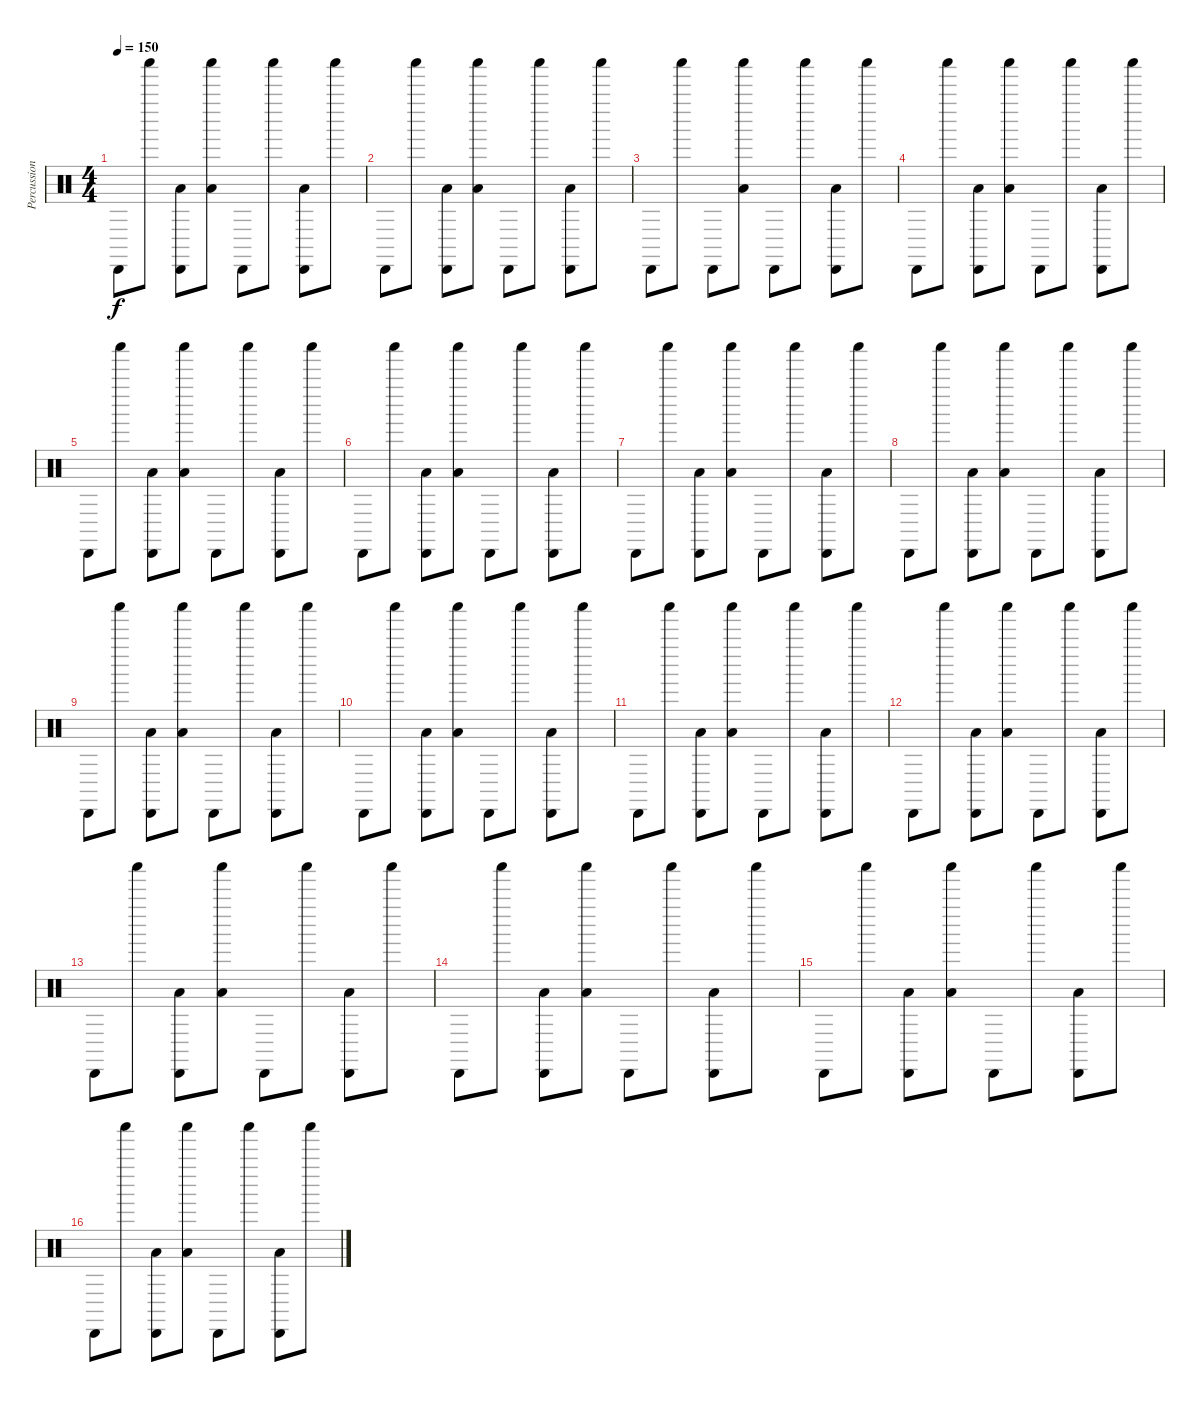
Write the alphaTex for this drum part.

\track ("Percussion" "Percussion") {instrument percussion}
\staff
\articulation defaults
\ts (4 4)
\tempo 150
\clef neutral
\ks c "Cabasa (hit)".8{dy f} "Shaker (hit)".8
("Cabasa (hit)" "Low Floor Tom (hit)").8 ("Shaker (hit)" "Low Floor Tom (hit)").8 "Cabasa (hit)".8 "Shaker (hit)".8 ("Cabasa (hit)" "Low Floor Tom (hit)").8 "Shaker (hit)".8 |
"Cabasa (hit)".8 "Shaker (hit)".8 ("Cabasa (hit)" "Low Floor Tom (hit)").8 ("Shaker (hit)" "Low Floor Tom (hit)").8 "Cabasa (hit)".8 "Shaker (hit)".8 ("Cabasa (hit)" "Low Floor Tom (hit)").8 "Shaker (hit)".8 |
"Cabasa (hit)".8 "Shaker (hit)".8 "Cabasa (hit)".8 ("Shaker (hit)" "Low Floor Tom (hit)").8 "Cabasa (hit)".8 "Shaker (hit)".8 ("Cabasa (hit)" "Low Floor Tom (hit)").8 "Shaker (hit)".8 |
"Cabasa (hit)".8 "Shaker (hit)".8 ("Cabasa (hit)" "Low Floor Tom (hit)").8 ("Shaker (hit)" "Low Floor Tom (hit)").8 "Cabasa (hit)".8 "Shaker (hit)".8 ("Cabasa (hit)" "Low Floor Tom (hit)").8 "Shaker (hit)".8 |
"Cabasa (hit)".8 "Shaker (hit)".8 ("Cabasa (hit)" "Low Floor Tom (hit)").8 ("Shaker (hit)" "Low Floor Tom (hit)").8 "Cabasa (hit)".8 "Shaker (hit)".8 ("Cabasa (hit)" "Low Floor Tom (hit)").8 "Shaker (hit)".8 |
"Cabasa (hit)".8 "Shaker (hit)".8 ("Cabasa (hit)" "Low Floor Tom (hit)").8 ("Shaker (hit)" "Low Floor Tom (hit)").8 "Cabasa (hit)".8 "Shaker (hit)".8 ("Cabasa (hit)" "Low Floor Tom (hit)").8 "Shaker (hit)".8 |
"Cabasa (hit)".8 "Shaker (hit)".8 ("Cabasa (hit)" "Low Floor Tom (hit)").8 ("Shaker (hit)" "Low Floor Tom (hit)").8 "Cabasa (hit)".8 "Shaker (hit)".8 ("Cabasa (hit)" "Low Floor Tom (hit)").8 "Shaker (hit)".8 |
"Cabasa (hit)".8 "Shaker (hit)".8 ("Cabasa (hit)" "Low Floor Tom (hit)").8 ("Shaker (hit)" "Low Floor Tom (hit)").8 "Cabasa (hit)".8 "Shaker (hit)".8 ("Cabasa (hit)" "Low Floor Tom (hit)").8 "Shaker (hit)".8 |
"Cabasa (hit)".8 "Shaker (hit)".8 ("Cabasa (hit)" "Low Floor Tom (hit)").8 ("Shaker (hit)" "Low Floor Tom (hit)").8 "Cabasa (hit)".8 "Shaker (hit)".8 ("Cabasa (hit)" "Low Floor Tom (hit)").8 "Shaker (hit)".8 |
"Cabasa (hit)".8 "Shaker (hit)".8 ("Cabasa (hit)" "Low Floor Tom (hit)").8 ("Shaker (hit)" "Low Floor Tom (hit)").8 "Cabasa (hit)".8 "Shaker (hit)".8 ("Cabasa (hit)" "Low Floor Tom (hit)").8 "Shaker (hit)".8 |
"Cabasa (hit)".8 "Shaker (hit)".8 ("Cabasa (hit)" "Low Floor Tom (hit)").8 ("Shaker (hit)" "Low Floor Tom (hit)").8 "Cabasa (hit)".8 "Shaker (hit)".8 ("Cabasa (hit)" "Low Floor Tom (hit)").8 "Shaker (hit)".8 |
"Cabasa (hit)".8 "Shaker (hit)".8 ("Cabasa (hit)" "Low Floor Tom (hit)").8 ("Shaker (hit)" "Low Floor Tom (hit)").8 "Cabasa (hit)".8 "Shaker (hit)".8 ("Cabasa (hit)" "Low Floor Tom (hit)").8 "Shaker (hit)".8 |
"Cabasa (hit)".8 "Shaker (hit)".8 ("Cabasa (hit)" "Low Floor Tom (hit)").8 ("Shaker (hit)" "Low Floor Tom (hit)").8 "Cabasa (hit)".8 "Shaker (hit)".8 ("Cabasa (hit)" "Low Floor Tom (hit)").8 "Shaker (hit)".8 |
"Cabasa (hit)".8 "Shaker (hit)".8 ("Cabasa (hit)" "Low Floor Tom (hit)").8 ("Shaker (hit)" "Low Floor Tom (hit)").8 "Cabasa (hit)".8 "Shaker (hit)".8 ("Cabasa (hit)" "Low Floor Tom (hit)").8 "Shaker (hit)".8 |
"Cabasa (hit)".8 "Shaker (hit)".8 ("Cabasa (hit)" "Low Floor Tom (hit)").8 ("Shaker (hit)" "Low Floor Tom (hit)").8 "Cabasa (hit)".8 "Shaker (hit)".8 ("Cabasa (hit)" "Low Floor Tom (hit)").8 "Shaker (hit)".8 |
"Cabasa (hit)".8 "Shaker (hit)".8 ("Cabasa (hit)" "Low Floor Tom (hit)").8 ("Shaker (hit)" "Low Floor Tom (hit)").8 "Cabasa (hit)".8 "Shaker (hit)".8 ("Cabasa (hit)" "Low Floor Tom (hit)").8 "Shaker (hit)".8
